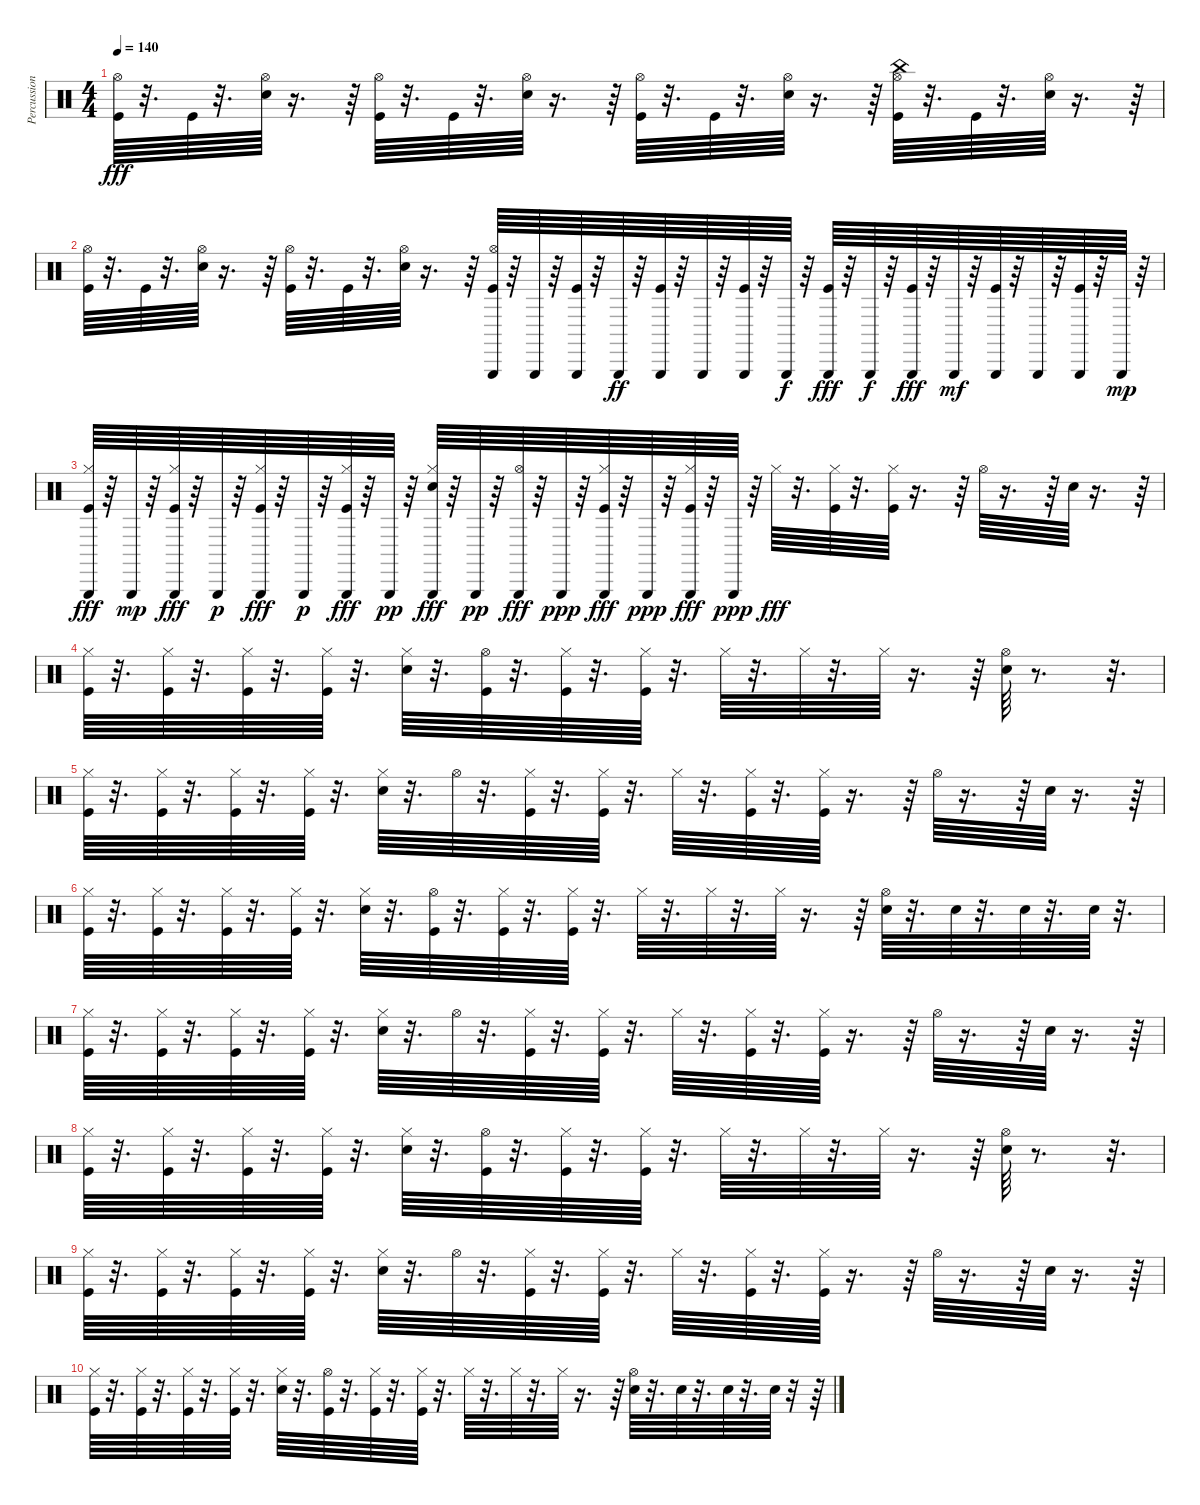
\track ("Percussion [Room Kit]" "Percussion") {instrument percussion}
\staff {score}
\articulation defaults
\ts (4 4)
\tempo 140
\clef neutral
\ks c
("Kick (hit)" "Hi-Hat (open)").64{dy fff} r.32{d} "Kick (hit)".64 r.32{d} ("Electric Snare (hit)" "Hi-Hat (open)").64 r.16{d} r.64 ("Kick (hit)" "Hi-Hat (open)").64 r.32{d} "Kick (hit)".64 r.32{d} ("Electric Snare (hit)" "Hi-Hat (open)").64 r.16{d} r.64 ("Kick (hit)" "Hi-Hat (open)").64 r.32{d} "Kick (hit)".64 r.32{d} ("Electric Snare (hit)" "Hi-Hat (open)").64 r.16{d} r.64 ("Kick (hit)" "Hi-Hat (open)" "China (hit)").64 r.32{d} "Kick (hit)".64 r.32{d} ("Electric Snare (hit)" "Hi-Hat (open)").64 r.16{d} r.64 |
("Kick (hit)" "Hi-Hat (open)").64 r.32{d} "Kick (hit)".64 r.32{d} ("Electric Snare (hit)" "Hi-Hat (open)").64 r.16{d} r.64 ("Kick (hit)" "Hi-Hat (open)").64 r.32{d} "Kick (hit)".64 r.32{d} ("Electric Snare (hit)" "Hi-Hat (open)").64 r.16{d} r.64 ("Kick (hit)" "Hi-Hat (open)" "Triangle (hit)").64 r.64 "Triangle (hit)".64 r.64 ("Kick (hit)" "Triangle (hit)").64 r.64 "Triangle (hit)".64{dy ff} r.64 ("Kick (hit)" "Triangle (hit)").64 r.64 "Triangle (hit)".64 r.64 ("Kick (hit)" "Triangle (hit)").64 r.64 "Triangle (hit)".64{dy f} r.64 ("Kick (hit)" "Triangle (hit)").64{dy fff} r.64 "Triangle (hit)".64{dy f} r.64 ("Kick (hit)" "Triangle (hit)").64{dy fff} r.64 "Triangle (hit)".64{dy mf} r.64 ("Kick (hit)" "Triangle (hit)").64 r.64 "Triangle (hit)".64 r.64 ("Kick (hit)" "Triangle (hit)").64 r.64 "Triangle (hit)".64{dy mp} r.64 |
("Triangle (hit)" "Kick (hit)" "Hi-Hat (closed)").64{dy fff} r.64 "Triangle (hit)".64{dy mp} r.64 ("Triangle (hit)" "Kick (hit)" "Hi-Hat (closed)").64{dy fff} r.64 "Triangle (hit)".64{dy p} r.64 ("Triangle (hit)" "Kick (hit)" "Hi-Hat (closed)").64{dy fff} r.64 "Triangle (hit)".64{dy p} r.64 ("Triangle (hit)" "Kick (hit)" "Hi-Hat (closed)").64{dy fff} r.64 "Triangle (hit)".64{dy pp} r.64 ("Triangle (hit)" "Electric Snare (hit)" "Hi-Hat (closed)").64{dy fff} r.64 "Triangle (hit)".64{dy pp} r.64 ("Triangle (hit)" "Hi-Hat (open)").64{dy fff} r.64 "Triangle (hit)".64{dy ppp} r.64 ("Triangle (hit)" "Kick (hit)" "Hi-Hat (closed)").64{dy fff} r.64 "Triangle (hit)".64{dy ppp} r.64 ("Triangle (hit)" "Kick (hit)" "Hi-Hat (closed)").64{dy fff} r.64 "Triangle (hit)".64{dy ppp} r.64 "Hi-Hat (closed)".64{dy fff} r.32{d} ("Kick (hit)" "Hi-Hat (closed)").64 r.32{d} ("Kick (hit)" "Hi-Hat (closed)").64 r.16{d} r.64 "Hi-Hat (open)".64 r.16{d} r.64 "Electric Snare (hit)".64 r.16{d} r.64 |
("Kick (hit)" "Hi-Hat (closed)").64 r.32{d} ("Kick (hit)" "Hi-Hat (closed)").64 r.32{d} ("Kick (hit)" "Hi-Hat (closed)").64 r.32{d} ("Kick (hit)" "Hi-Hat (closed)").64 r.32{d} ("Electric Snare (hit)" "Hi-Hat (closed)").64 r.32{d} ("Kick (hit)" "Hi-Hat (open)").64 r.32{d} ("Kick (hit)" "Hi-Hat (closed)").64 r.32{d} ("Kick (hit)" "Hi-Hat (closed)").64 r.32{d} "Hi-Hat (closed)".64 r.32{d} "Hi-Hat (closed)".64 r.32{d} "Hi-Hat (closed)".64 r.16{d} r.64 ("Electric Snare (hit)" "Hi-Hat (open)").64 r.8{d} r.32{d} |
("Kick (hit)" "Hi-Hat (closed)").64 r.32{d} ("Kick (hit)" "Hi-Hat (closed)").64 r.32{d} ("Kick (hit)" "Hi-Hat (closed)").64 r.32{d} ("Kick (hit)" "Hi-Hat (closed)").64 r.32{d} ("Electric Snare (hit)" "Hi-Hat (closed)").64 r.32{d} "Hi-Hat (open)".64 r.32{d} ("Kick (hit)" "Hi-Hat (closed)").64 r.32{d} ("Kick (hit)" "Hi-Hat (closed)").64 r.32{d} "Hi-Hat (closed)".64 r.32{d} ("Kick (hit)" "Hi-Hat (closed)").64 r.32{d} ("Kick (hit)" "Hi-Hat (closed)").64 r.16{d} r.64 "Hi-Hat (open)".64 r.16{d} r.64 "Electric Snare (hit)".64 r.16{d} r.64 |
("Kick (hit)" "Hi-Hat (closed)").64 r.32{d} ("Kick (hit)" "Hi-Hat (closed)").64 r.32{d} ("Kick (hit)" "Hi-Hat (closed)").64 r.32{d} ("Kick (hit)" "Hi-Hat (closed)").64 r.32{d} ("Electric Snare (hit)" "Hi-Hat (closed)").64 r.32{d} ("Kick (hit)" "Hi-Hat (open)").64 r.32{d} ("Kick (hit)" "Hi-Hat (closed)").64 r.32{d} ("Kick (hit)" "Hi-Hat (closed)").64 r.32{d} "Hi-Hat (closed)".64 r.32{d} "Hi-Hat (closed)".64 r.32{d} "Hi-Hat (closed)".64 r.16{d} r.64 ("Electric Snare (hit)" "Hi-Hat (open)").64 r.32{d} "Electric Snare (hit)".64 r.32{d} "Electric Snare (hit)".64 r.32{d} "Electric Snare (hit)".64 r.32{d} |
("Kick (hit)" "Hi-Hat (closed)").64 r.32{d} ("Kick (hit)" "Hi-Hat (closed)").64 r.32{d} ("Kick (hit)" "Hi-Hat (closed)").64 r.32{d} ("Kick (hit)" "Hi-Hat (closed)").64 r.32{d} ("Electric Snare (hit)" "Hi-Hat (closed)").64 r.32{d} "Hi-Hat (open)".64 r.32{d} ("Kick (hit)" "Hi-Hat (closed)").64 r.32{d} ("Kick (hit)" "Hi-Hat (closed)").64 r.32{d} "Hi-Hat (closed)".64 r.32{d} ("Kick (hit)" "Hi-Hat (closed)").64 r.32{d} ("Kick (hit)" "Hi-Hat (closed)").64 r.16{d} r.64 "Hi-Hat (open)".64 r.16{d} r.64 "Electric Snare (hit)".64 r.16{d} r.64 |
("Kick (hit)" "Hi-Hat (closed)").64 r.32{d} ("Kick (hit)" "Hi-Hat (closed)").64 r.32{d} ("Kick (hit)" "Hi-Hat (closed)").64 r.32{d} ("Kick (hit)" "Hi-Hat (closed)").64 r.32{d} ("Electric Snare (hit)" "Hi-Hat (closed)").64 r.32{d} ("Kick (hit)" "Hi-Hat (open)").64 r.32{d} ("Kick (hit)" "Hi-Hat (closed)").64 r.32{d} ("Kick (hit)" "Hi-Hat (closed)").64 r.32{d} "Hi-Hat (closed)".64 r.32{d} "Hi-Hat (closed)".64 r.32{d} "Hi-Hat (closed)".64 r.16{d} r.64 ("Electric Snare (hit)" "Hi-Hat (open)").64 r.8{d} r.32{d} |
("Kick (hit)" "Hi-Hat (closed)").64 r.32{d} ("Kick (hit)" "Hi-Hat (closed)").64 r.32{d} ("Kick (hit)" "Hi-Hat (closed)").64 r.32{d} ("Kick (hit)" "Hi-Hat (closed)").64 r.32{d} ("Electric Snare (hit)" "Hi-Hat (closed)").64 r.32{d} "Hi-Hat (open)".64 r.32{d} ("Kick (hit)" "Hi-Hat (closed)").64 r.32{d} ("Kick (hit)" "Hi-Hat (closed)").64 r.32{d} "Hi-Hat (closed)".64 r.32{d} ("Kick (hit)" "Hi-Hat (closed)").64 r.32{d} ("Kick (hit)" "Hi-Hat (closed)").64 r.16{d} r.64 "Hi-Hat (open)".64 r.16{d} r.64 "Electric Snare (hit)".64 r.16{d} r.64 |
("Kick (hit)" "Hi-Hat (closed)").64 r.32{d} ("Kick (hit)" "Hi-Hat (closed)").64 r.32{d} ("Kick (hit)" "Hi-Hat (closed)").64 r.32{d} ("Kick (hit)" "Hi-Hat (closed)").64 r.32{d} ("Electric Snare (hit)" "Hi-Hat (closed)").64 r.32{d} ("Kick (hit)" "Hi-Hat (open)").64 r.32{d} ("Kick (hit)" "Hi-Hat (closed)").64 r.32{d} ("Kick (hit)" "Hi-Hat (closed)").64 r.32{d} "Hi-Hat (closed)".64 r.32{d} "Hi-Hat (closed)".64 r.32{d} "Hi-Hat (closed)".64 r.16{d} r.64 ("Electric Snare (hit)" "Hi-Hat (open)").64 r.32{d} "Electric Snare (hit)".64 r.32{d} "Electric Snare (hit)".64 r.32{d} "Electric Snare (hit)".64 r.32 r.64
